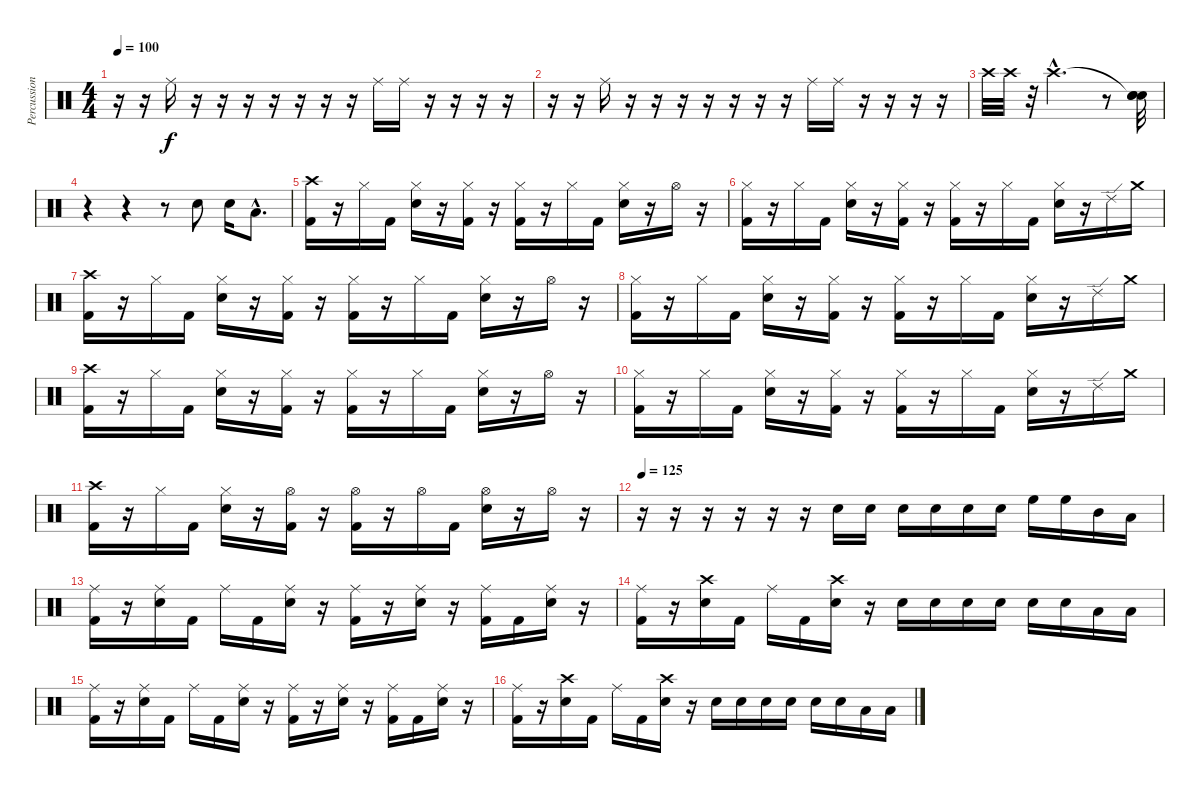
\track ("Percussion" "Percussion") {instrument percussion}
\staff {score}
\articulation defaults
\ts (4 4)
\tempo 100
\clef neutral
\ks c
r.16{dy f} r.16 "Ride (middle)".16 r.16 r.16 r.16 r.16 r.16 r.16 r.16 "Ride (middle)".16 "Ride (middle)".16 r.16 r.16 r.16 r.16 |
r.16 r.16 "Ride (middle)".16 r.16 r.16 r.16 r.16 r.16 r.16 r.16 "Ride (middle)".16 "Ride (middle)".16 r.16 r.16 r.16 r.16 |
"Crash high (hit)".32{volume 6} "Crash high (hit)".32{volume 8} r.32 "Crash high (hit)"{hac}.2{d} r.8 ("Snare (hit)"{t} "Snare (hit)" "Snare (hit)").32 |
r.4 r.4 r.8 "Snare (hit) 2".8 "Snare (hit) 2".16 "Low Tom (hit)"{hac}.8{d} |
("Kick (hit) 2" "Crash high (hit)").16 r.16 "Hi-Hat (closed)".16 "Kick (hit) 2".16 ("Snare (hit) 2" "Hi-Hat (closed)").16 r.16 ("Kick (hit) 2" "Hi-Hat (closed)").16 r.16 ("Kick (hit) 2" "Hi-Hat (closed)").16 r.16 "Hi-Hat (closed)".16 "Kick (hit) 2".16 ("Snare (hit) 2" "Hi-Hat (closed)").16 r.16 "Hi-Hat (open)".16 r.16 |
("Kick (hit) 2" "Hi-Hat (closed)").16 r.16 "Hi-Hat (closed)".16 "Kick (hit) 2".16 ("Snare (hit) 2" "Hi-Hat (closed)").16 r.16 ("Kick (hit) 2" "Hi-Hat (closed)").16 r.16 ("Kick (hit) 2" "Hi-Hat (closed)").16 r.16 "Hi-Hat (closed)".16 "Kick (hit) 2".16 ("Snare (hit) 2" "Hi-Hat (closed)").16 r.16 "Ride (edge) 2".16 "Crash medium (hit)".16 |
("Kick (hit) 2" "Crash high (hit)").16 r.16 "Hi-Hat (closed)".16 "Kick (hit) 2".16 ("Snare (hit) 2" "Hi-Hat (closed)").16 r.16 ("Kick (hit) 2" "Hi-Hat (closed)").16 r.16 ("Kick (hit) 2" "Hi-Hat (closed)").16 r.16 "Hi-Hat (closed)".16 "Kick (hit) 2".16 ("Snare (hit) 2" "Hi-Hat (closed)").16 r.16 "Hi-Hat (open)".16 r.16 |
("Kick (hit) 2" "Hi-Hat (closed)").16 r.16 "Hi-Hat (closed)".16 "Kick (hit) 2".16 ("Snare (hit) 2" "Hi-Hat (closed)").16 r.16 ("Kick (hit) 2" "Hi-Hat (closed)").16 r.16 ("Kick (hit) 2" "Hi-Hat (closed)").16 r.16 "Hi-Hat (closed)".16 "Kick (hit) 2".16 ("Snare (hit) 2" "Hi-Hat (closed)").16 r.16 "Ride (edge) 2".16 "Crash medium (hit)".16 |
("Kick (hit) 2" "Crash high (hit)").16 r.16 "Hi-Hat (closed)".16 "Kick (hit) 2".16 ("Snare (hit) 2" "Hi-Hat (closed)").16 r.16 ("Kick (hit) 2" "Hi-Hat (closed)").16 r.16 ("Kick (hit) 2" "Hi-Hat (closed)").16 r.16 "Hi-Hat (closed)".16 "Kick (hit) 2".16 ("Snare (hit) 2" "Hi-Hat (closed)").16 r.16 "Hi-Hat (open)".16 r.16 |
("Kick (hit) 2" "Hi-Hat (closed)").16 r.16 "Hi-Hat (closed)".16 "Kick (hit) 2".16 ("Snare (hit) 2" "Hi-Hat (closed)").16 r.16 ("Kick (hit) 2" "Hi-Hat (closed)").16 r.16 ("Kick (hit) 2" "Hi-Hat (closed)").16 r.16 "Hi-Hat (closed)".16 "Kick (hit) 2".16 ("Snare (hit) 2" "Hi-Hat (closed)").16 r.16 "Ride (edge) 2".16 "Crash medium (hit)".16 |
("Kick (hit) 2" "Crash high (hit)").16 r.16 "Hi-Hat (closed)".16 "Kick (hit) 2".16 ("Snare (hit) 2" "Hi-Hat (closed)").16 r.16 ("Kick (hit) 2" "Hi-Hat (open)").16 r.16 ("Kick (hit) 2" "Hi-Hat (open)").16 r.16 "Hi-Hat (open)".16 "Kick (hit) 2".16 ("Snare (hit) 2" "Hi-Hat (open)").16 r.16 "Hi-Hat (open)".16 r.16 |
\tempo 125
r.16{volume 16} r.16 r.16 r.16 r.16 r.16 "Snare (hit) 2".16 "Snare (hit) 2".16 "Snare (hit) 2".16 "Snare (hit) 2".16 "Snare (hit) 2".16 "Snare (hit) 2".16 "High Floor Tom (hit)".16 "High Floor Tom (hit)".16 "Mid Tom (hit)".16 "Low Tom (hit)".16 |
("Kick (hit) 2" "Ride (middle)").16 r.16 ("Snare (hit) 2" "Ride (middle)").16 "Kick (hit) 2".16 "Ride (middle)".16 "Kick (hit) 2".16 ("Snare (hit) 2" "Ride (middle)").16 r.16 ("Kick (hit) 2" "Ride (middle)").16 r.16 ("Snare (hit) 2" "Ride (middle)").16 r.16 ("Kick (hit) 2" "Ride (middle)").16 "Kick (hit) 2".16 ("Snare (hit) 2" "Ride (middle)").16 r.16 |
("Kick (hit) 2" "Ride (middle)").16 r.16 ("Snare (hit) 2" "Crash high (hit)").16 "Kick (hit) 2".16 "Ride (middle)".16 "Kick (hit) 2".16 ("Snare (hit) 2" "Crash high (hit)").16 r.16 "Snare (hit) 2".16 "Snare (hit) 2".16 "Snare (hit) 2".16 "Snare (hit) 2".16 "Snare (hit) 2".16 "Snare (hit) 2".16 "Low Tom (hit)".16 "Low Tom (hit)".16 |
("Kick (hit) 2" "Ride (middle)").16 r.16 ("Snare (hit) 2" "Ride (middle)").16 "Kick (hit) 2".16 "Ride (middle)".16 "Kick (hit) 2".16 ("Snare (hit) 2" "Ride (middle)").16 r.16 ("Kick (hit) 2" "Ride (middle)").16 r.16 ("Snare (hit) 2" "Ride (middle)").16 r.16 ("Kick (hit) 2" "Ride (middle)").16 "Kick (hit) 2".16 ("Snare (hit) 2" "Ride (middle)").16 r.16 |
("Kick (hit) 2" "Ride (middle)").16 r.16 ("Snare (hit) 2" "Crash high (hit)").16 "Kick (hit) 2".16 "Ride (middle)".16 "Kick (hit) 2".16 ("Snare (hit) 2" "Crash high (hit)").16 r.16 "Snare (hit) 2".16 "Snare (hit) 2".16 "Snare (hit) 2".16 "Snare (hit) 2".16 "Snare (hit) 2".16 "Snare (hit) 2".16 "Low Tom (hit)".16 "Low Tom (hit)".16
